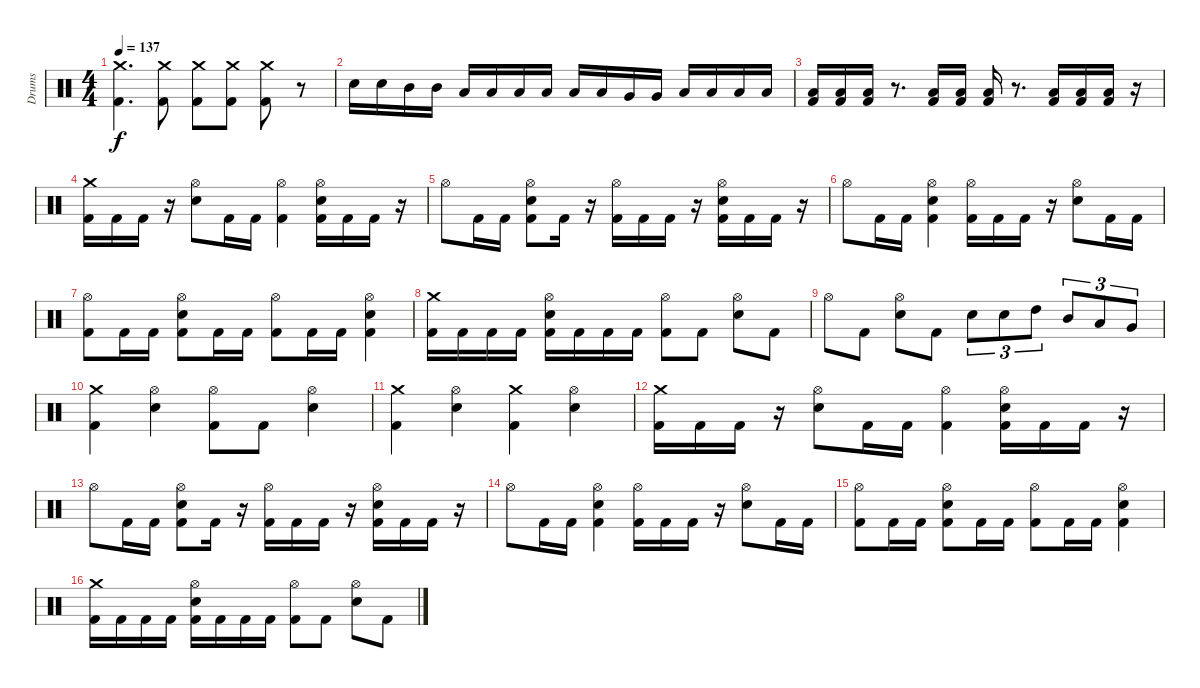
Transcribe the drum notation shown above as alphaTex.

\track ("Drums" "Drums") {instrument percussion}
\staff {score}
\articulation defaults
\ts (4 4)
\tempo 137
\clef neutral
\ks c
("Crash medium (hit)" "Kick (hit) 2").4{d dy f} ("Crash medium (hit)" "Kick (hit) 2").8 ("Crash medium (hit)" "Kick (hit) 2").8 ("Crash medium (hit)" "Kick (hit) 2").8 ("Crash medium (hit)" "Kick (hit) 2").8 r.8 |
"Electric Snare (hit)".16 "Electric Snare (hit)".16 "Mid Tom (hit)".16 "Mid Tom (hit)".16 "Low Tom (hit)".16 "Low Tom (hit)".16 "Low Floor Tom (hit)".16 "Low Floor Tom (hit)".16 "Low Tom (hit)".16 "Low Tom (hit)".16 "Very Low Tom (hit)".16 "Very Low Tom (hit)".16 "Low Floor Tom (hit)".16 "Low Floor Tom (hit)".16 "Low Floor Tom (hit)".16 "Low Floor Tom (hit)".16 |
("Low Floor Tom (hit)" "Kick (hit) 2").16 ("Low Floor Tom (hit)" "Kick (hit) 2").16 ("Low Floor Tom (hit)" "Kick (hit) 2").16 r.8{d} ("Low Floor Tom (hit)" "Kick (hit) 2").16 ("Low Floor Tom (hit)" "Kick (hit) 2").16 ("Low Floor Tom (hit)" "Kick (hit) 2").16 r.8{d} ("Low Floor Tom (hit)" "Kick (hit) 2").16 ("Low Floor Tom (hit)" "Kick (hit) 2").16 ("Low Floor Tom (hit)" "Kick (hit) 2").16 r.16 |
("Crash medium (hit)" "Kick (hit) 2").16 "Kick (hit) 2".16 "Kick (hit) 2".16 r.16 ("Electric Snare (hit)" "Hi-Hat (open)").8 "Kick (hit) 2".16 "Kick (hit) 2".16 ("Hi-Hat (open)" "Kick (hit) 2").4 ("Electric Snare (hit)" "Hi-Hat (open)" "Kick (hit) 2").16 "Kick (hit) 2".16 "Kick (hit) 2".16 r.16 |
"Hi-Hat (open)".8 "Kick (hit) 2".16 "Kick (hit) 2".16 ("Electric Snare (hit)" "Hi-Hat (open)" "Kick (hit) 2").8 "Kick (hit) 2".16 r.16 ("Hi-Hat (open)" "Kick (hit) 2").16 "Kick (hit) 2".16 "Kick (hit) 2".16 r.16 ("Electric Snare (hit)" "Hi-Hat (open)" "Kick (hit) 2").16 "Kick (hit) 2".16 "Kick (hit) 2".16 r.16 |
"Hi-Hat (open)".8 "Kick (hit) 2".16 "Kick (hit) 2".16 ("Hi-Hat (open)" "Electric Snare (hit)" "Kick (hit) 2").4 ("Hi-Hat (open)" "Kick (hit) 2").16 "Kick (hit) 2".16 "Kick (hit) 2".16 r.16 ("Hi-Hat (open)" "Electric Snare (hit)").8 "Kick (hit) 2".16 "Kick (hit) 2".16 |
("Hi-Hat (open)" "Kick (hit) 2").8 "Kick (hit) 2".16 "Kick (hit) 2".16 ("Electric Snare (hit)" "Hi-Hat (open)" "Kick (hit) 2").8 "Kick (hit) 2".16 "Kick (hit) 2".16 ("Hi-Hat (open)" "Kick (hit) 2").8 "Kick (hit) 2".16 "Kick (hit) 2".16 ("Electric Snare (hit)" "Hi-Hat (open)" "Kick (hit) 2").4 |
("Crash medium (hit)" "Kick (hit) 2").16 "Kick (hit) 2".16 "Kick (hit) 2".16 "Kick (hit) 2".16 ("Hi-Hat (open)" "Electric Snare (hit)" "Kick (hit) 2").16 "Kick (hit) 2".16 "Kick (hit) 2".16 "Kick (hit) 2".16 ("Hi-Hat (open)" "Kick (hit) 2").8 "Kick (hit) 2".8 ("Hi-Hat (open)" "Electric Snare (hit)").8 "Kick (hit) 2".8 |
"Hi-Hat (open)".8 "Kick (hit) 2".8 ("Hi-Hat (open)" "Electric Snare (hit)").8 "Kick (hit) 2".8 "Electric Snare (hit)".8{tu (3 2)} "Electric Snare (hit)".8{tu (3 2)} "High Tom (hit)".8{tu (3 2)} "Mid Tom (hit)".8{tu (3 2)} "Low Tom (hit)".8{tu (3 2)} "Very Low Tom (hit)".8{tu (3 2)} |
("Crash medium (hit)" "Kick (hit) 2").4 ("Hi-Hat (open)" "Electric Snare (hit)").4 ("Hi-Hat (open)" "Kick (hit) 2").8 "Kick (hit) 2".8 ("Hi-Hat (open)" "Electric Snare (hit)").4 |
("Crash medium (hit)" "Kick (hit) 2").4 ("Hi-Hat (open)" "Electric Snare (hit)").4 ("Crash medium (hit)" "Kick (hit) 2").4 ("Hi-Hat (open)" "Electric Snare (hit)").4 |
("Crash medium (hit)" "Kick (hit) 2").16 "Kick (hit) 2".16 "Kick (hit) 2".16 r.16 ("Electric Snare (hit)" "Hi-Hat (open)").8 "Kick (hit) 2".16 "Kick (hit) 2".16 ("Hi-Hat (open)" "Kick (hit) 2").4 ("Electric Snare (hit)" "Hi-Hat (open)" "Kick (hit) 2").16 "Kick (hit) 2".16 "Kick (hit) 2".16 r.16 |
"Hi-Hat (open)".8 "Kick (hit) 2".16 "Kick (hit) 2".16 ("Electric Snare (hit)" "Hi-Hat (open)" "Kick (hit) 2").8 "Kick (hit) 2".16 r.16 ("Hi-Hat (open)" "Kick (hit) 2").16 "Kick (hit) 2".16 "Kick (hit) 2".16 r.16 ("Electric Snare (hit)" "Hi-Hat (open)" "Kick (hit) 2").16 "Kick (hit) 2".16 "Kick (hit) 2".16 r.16 |
"Hi-Hat (open)".8 "Kick (hit) 2".16 "Kick (hit) 2".16 ("Hi-Hat (open)" "Electric Snare (hit)" "Kick (hit) 2").4 ("Hi-Hat (open)" "Kick (hit) 2").16 "Kick (hit) 2".16 "Kick (hit) 2".16 r.16 ("Hi-Hat (open)" "Electric Snare (hit)").8 "Kick (hit) 2".16 "Kick (hit) 2".16 |
("Hi-Hat (open)" "Kick (hit) 2").8 "Kick (hit) 2".16 "Kick (hit) 2".16 ("Electric Snare (hit)" "Hi-Hat (open)" "Kick (hit) 2").8 "Kick (hit) 2".16 "Kick (hit) 2".16 ("Hi-Hat (open)" "Kick (hit) 2").8 "Kick (hit) 2".16 "Kick (hit) 2".16 ("Electric Snare (hit)" "Hi-Hat (open)" "Kick (hit) 2").4 |
("Crash medium (hit)" "Kick (hit) 2").16 "Kick (hit) 2".16 "Kick (hit) 2".16 "Kick (hit) 2".16 ("Hi-Hat (open)" "Electric Snare (hit)" "Kick (hit) 2").16 "Kick (hit) 2".16 "Kick (hit) 2".16 "Kick (hit) 2".16 ("Hi-Hat (open)" "Kick (hit) 2").8 "Kick (hit) 2".8 ("Hi-Hat (open)" "Electric Snare (hit)").8 "Kick (hit) 2".8
